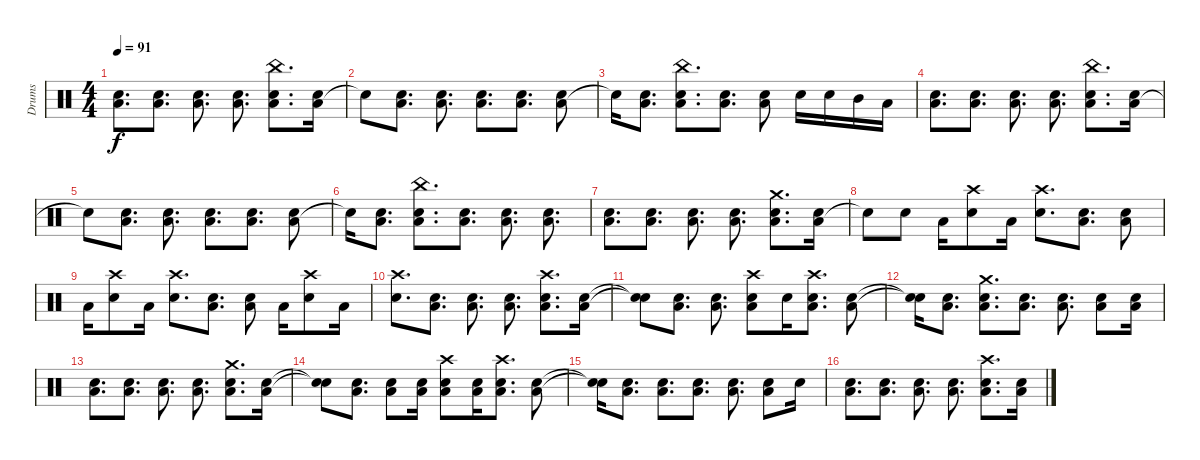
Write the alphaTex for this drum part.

\track ("Drums" "Drums") {instrument percussion}
\staff {score}
\articulation defaults
\ts (4 4)
\tempo 91
\clef neutral
\ks c
("Low Tom (hit)" "Electric Snare (hit)").8{d dy f} ("Low Tom (hit)" "Electric Snare (hit)").8{d} ("Low Tom (hit)" "Electric Snare (hit)").8{d} ("Low Tom (hit)" "Electric Snare (hit)").8{d} ("China (hit)" "Low Tom (hit)" "Electric Snare (hit)").8{d} ("Low Tom (hit)" "Electric Snare (hit)").16 |
"Snare (hit)"{t}.8 ("Low Tom (hit)" "Electric Snare (hit)").8{d} ("Low Tom (hit)" "Electric Snare (hit)").8{d} ("Low Tom (hit)" "Electric Snare (hit)").8{d} ("Low Tom (hit)" "Electric Snare (hit)").8{d} ("Low Tom (hit)" "Electric Snare (hit)").8 |
"Snare (hit)"{t}.16 ("Low Tom (hit)" "Electric Snare (hit)").8{d} ("China (hit)" "Low Tom (hit)" "Electric Snare (hit)").8{d} ("Low Tom (hit)" "Electric Snare (hit)").8{d} ("Low Tom (hit)" "Electric Snare (hit)").8 "Electric Snare (hit)".16 "Electric Snare (hit)".16 "Mid Tom (hit)".16 "Low Tom (hit)".16 |
("Low Tom (hit)" "Electric Snare (hit)").8{d} ("Low Tom (hit)" "Electric Snare (hit)").8{d} ("Low Tom (hit)" "Electric Snare (hit)").8{d} ("Low Tom (hit)" "Electric Snare (hit)").8{d} ("China (hit)" "Low Tom (hit)" "Electric Snare (hit)").8{d} ("Low Tom (hit)" "Electric Snare (hit)").16 |
"Snare (hit)"{t}.8 ("Low Tom (hit)" "Electric Snare (hit)").8{d} ("Low Tom (hit)" "Electric Snare (hit)").8{d} ("Low Tom (hit)" "Electric Snare (hit)").8{d} ("Low Tom (hit)" "Electric Snare (hit)").8{d} ("Low Tom (hit)" "Electric Snare (hit)").8 |
"Snare (hit)"{t}.16 ("Low Tom (hit)" "Electric Snare (hit)").8{d} ("China (hit)" "Low Tom (hit)" "Electric Snare (hit)").8{d} ("Low Tom (hit)" "Electric Snare (hit)").8{d} ("Low Tom (hit)" "Electric Snare (hit)").8{d} ("Low Tom (hit)" "Electric Snare (hit)").8{d} |
("Low Tom (hit)" "Electric Snare (hit)").8{d} ("Low Tom (hit)" "Electric Snare (hit)").8{d} ("Low Tom (hit)" "Electric Snare (hit)").8{d} ("Low Tom (hit)" "Electric Snare (hit)").8{d} ("Crash medium (hit)" "Low Tom (hit)" "Electric Snare (hit)").8{d} ("Low Tom (hit)" "Electric Snare (hit)").16 |
"Snare (hit)"{t}.8 "Electric Snare (hit)".8 "Low Tom (hit)".16 ("Crash high (hit)" "Electric Snare (hit)").8 "Low Tom (hit)".16 ("Crash high (hit)" "Electric Snare (hit)").8{d} ("Low Tom (hit)" "Electric Snare (hit)").8{d} ("Low Tom (hit)" "Electric Snare (hit)").8 |
"Low Tom (hit)".16 ("Crash high (hit)" "Electric Snare (hit)").8 "Low Tom (hit)".16 ("Crash high (hit)" "Electric Snare (hit)").8{d} ("Low Tom (hit)" "Electric Snare (hit)").8{d} ("Low Tom (hit)" "Electric Snare (hit)").8 "Low Tom (hit)".16 ("Crash high (hit)" "Electric Snare (hit)").8 "Low Tom (hit)".16 |
("Crash high (hit)" "Electric Snare (hit)").8{d} ("Low Tom (hit)" "Electric Snare (hit)").8{d} ("Low Tom (hit)" "Electric Snare (hit)").8{d} ("Low Tom (hit)" "Electric Snare (hit)").8{d} ("Crash high (hit)" "Low Tom (hit)" "Electric Snare (hit)").8{d} ("Low Tom (hit)" "Electric Snare (hit)").16 |
("Snare (hit)"{t} "Snare (hit)"{t}).8 ("Low Tom (hit)" "Electric Snare (hit)").8{d} ("Low Tom (hit)" "Electric Snare (hit)").8{d} ("Crash high (hit)" "Low Tom (hit)" "Electric Snare (hit)").8 "Electric Snare (hit)".16 ("Crash high (hit)" "Low Tom (hit)" "Electric Snare (hit)").8{d} ("Low Tom (hit)" "Electric Snare (hit)").8 |
("Snare (hit)"{t} "Snare (hit)"{t}).16 ("Low Tom (hit)" "Electric Snare (hit)").8{d} ("Crash medium (hit)" "Low Tom (hit)" "Electric Snare (hit)").8{d} ("Low Tom (hit)" "Electric Snare (hit)").8{d} ("Low Tom (hit)" "Electric Snare (hit)").8{d} ("Low Tom (hit)" "Electric Snare (hit)").8 ("Low Tom (hit)" "Electric Snare (hit)").16 |
("Low Tom (hit)" "Electric Snare (hit)").8{d} ("Low Tom (hit)" "Electric Snare (hit)").8{d} ("Low Tom (hit)" "Electric Snare (hit)").8{d} ("Low Tom (hit)" "Electric Snare (hit)").8{d} ("Crash medium (hit)" "Low Tom (hit)" "Electric Snare (hit)").8{d} ("Low Tom (hit)" "Electric Snare (hit)").16 |
("Snare (hit)"{t} "Snare (hit)"{t}).8 ("Low Tom (hit)" "Electric Snare (hit)").8{d} ("Low Tom (hit)" "Electric Snare (hit)").8 ("Low Tom (hit)" "Electric Snare (hit)").16 ("Crash high (hit)" "Low Tom (hit)" "Electric Snare (hit)").8 ("Low Tom (hit)" "Electric Snare (hit)").16 ("Crash high (hit)" "Low Tom (hit)" "Electric Snare (hit)").8{d} ("Low Tom (hit)" "Electric Snare (hit)").8 |
("Snare (hit)"{t} "Snare (hit)"{t}).16 ("Low Tom (hit)" "Electric Snare (hit)").8{d} ("Low Tom (hit)" "Electric Snare (hit)").8{d} ("Low Tom (hit)" "Electric Snare (hit)").8{d} ("Low Tom (hit)" "Electric Snare (hit)").8{d} ("Low Tom (hit)" "Electric Snare (hit)").8 "Electric Snare (hit)".16 |
("Low Tom (hit)" "Electric Snare (hit)").8{d} ("Low Tom (hit)" "Electric Snare (hit)").8{d} ("Low Tom (hit)" "Electric Snare (hit)").8{d} ("Low Tom (hit)" "Electric Snare (hit)").8{d} ("Crash high (hit)" "Low Tom (hit)" "Electric Snare (hit)").8{d} ("Low Tom (hit)" "Electric Snare (hit)").16
